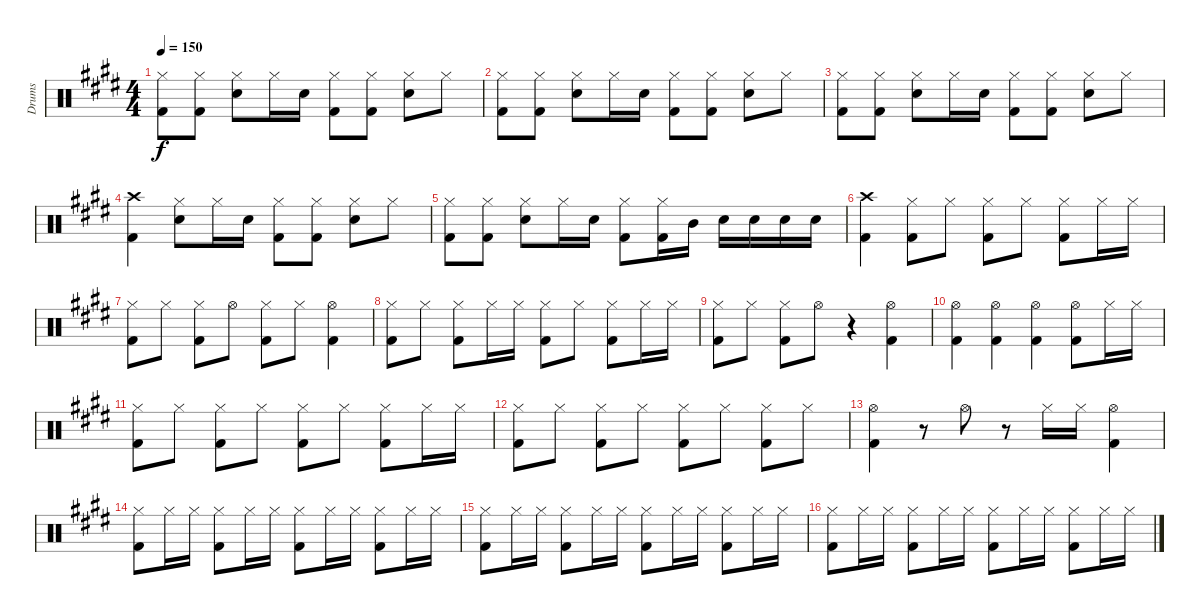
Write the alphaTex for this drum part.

\track ("Drums" "Drums") {instrument percussion}
\staff {score}
\articulation defaults
\ts (4 4)
\tempo 150
\clef neutral
\ks e
("Hi-Hat (closed)" "Kick (hit) 2").8{dy f} ("Hi-Hat (closed)" "Kick (hit) 2").8 ("Hi-Hat (closed)" "Snare (hit) 2").8 "Hi-Hat (closed)".16 "Snare (hit) 2".16 ("Hi-Hat (closed)" "Kick (hit) 2").8 ("Hi-Hat (closed)" "Kick (hit) 2").8 ("Hi-Hat (closed)" "Snare (hit) 2").8 "Hi-Hat (closed)".8 |
("Hi-Hat (closed)" "Kick (hit) 2").8 ("Hi-Hat (closed)" "Kick (hit) 2").8 ("Hi-Hat (closed)" "Snare (hit) 2").8 "Hi-Hat (closed)".16 "Snare (hit) 2".16 ("Hi-Hat (closed)" "Kick (hit) 2").8 ("Hi-Hat (closed)" "Kick (hit) 2").8 ("Hi-Hat (closed)" "Snare (hit) 2").8 "Hi-Hat (closed)".8 |
("Hi-Hat (closed)" "Kick (hit) 2").8 ("Hi-Hat (closed)" "Kick (hit) 2").8 ("Hi-Hat (closed)" "Snare (hit) 2").8 "Hi-Hat (closed)".16 "Snare (hit) 2".16 ("Hi-Hat (closed)" "Kick (hit) 2").8 ("Hi-Hat (closed)" "Kick (hit) 2").8 ("Hi-Hat (closed)" "Snare (hit) 2").8 "Hi-Hat (closed)".8 |
("Crash high (hit)" "Kick (hit) 2").4 ("Hi-Hat (closed)" "Snare (hit) 2").8 "Hi-Hat (closed)".16 "Snare (hit) 2".16 ("Hi-Hat (closed)" "Kick (hit) 2").8 ("Hi-Hat (closed)" "Kick (hit) 2").8 ("Hi-Hat (closed)" "Snare (hit) 2").8 "Hi-Hat (closed)".8 |
("Hi-Hat (closed)" "Kick (hit) 2").8 ("Hi-Hat (closed)" "Kick (hit) 2").8 ("Hi-Hat (closed)" "Snare (hit) 2").8 "Hi-Hat (closed)".16 "Snare (hit) 2".16 ("Hi-Hat (closed)" "Kick (hit) 2").8 ("Hi-Hat (closed)" "Kick (hit) 2").16 "Mid Tom (hit)".16 "Snare (hit) 2".16 "Snare (hit) 2".16 "Snare (hit) 2".16 "Snare (hit) 2".16 |
("Crash high (hit)" "Kick (hit) 2").4 ("Hi-Hat (closed)" "Kick (hit) 2").8 "Hi-Hat (closed)".8 ("Hi-Hat (closed)" "Kick (hit) 2").8 "Hi-Hat (closed)".8 ("Hi-Hat (closed)" "Kick (hit) 2").8 "Hi-Hat (closed)".16 "Hi-Hat (closed)".16 |
("Hi-Hat (closed)" "Kick (hit) 2").8 "Hi-Hat (closed)".8 ("Hi-Hat (closed)" "Kick (hit) 2").8 "Hi-Hat (open)".8 ("Hi-Hat (closed)" "Kick (hit) 2").8 "Hi-Hat (closed)".8 ("Hi-Hat (open)" "Kick (hit) 2").4 |
("Hi-Hat (closed)" "Kick (hit) 2").8 "Hi-Hat (closed)".8 ("Hi-Hat (closed)" "Kick (hit) 2").8 "Hi-Hat (closed)".16 "Hi-Hat (closed)".16 ("Hi-Hat (closed)" "Kick (hit) 2").8 "Hi-Hat (closed)".8 ("Hi-Hat (closed)" "Kick (hit) 2").8 "Hi-Hat (closed)".16 "Hi-Hat (closed)".16 |
("Hi-Hat (closed)" "Kick (hit) 2").8 "Hi-Hat (closed)".8 ("Hi-Hat (closed)" "Kick (hit) 2").8 "Hi-Hat (open)".8 r.4 ("Hi-Hat (open)" "Kick (hit) 2").4 |
("Hi-Hat (open)" "Kick (hit) 2").4 ("Hi-Hat (open)" "Kick (hit) 2").4 ("Hi-Hat (open)" "Kick (hit) 2").4 ("Hi-Hat (open)" "Kick (hit) 2").8 "Hi-Hat (closed)".16 "Hi-Hat (closed)".16 |
("Hi-Hat (closed)" "Kick (hit) 2").8 "Hi-Hat (closed)".8 ("Hi-Hat (closed)" "Kick (hit) 2").8 "Hi-Hat (closed)".8 ("Hi-Hat (closed)" "Kick (hit) 2").8 "Hi-Hat (closed)".8 ("Hi-Hat (closed)" "Kick (hit) 2").8 "Hi-Hat (closed)".16 "Hi-Hat (closed)".16 |
("Hi-Hat (closed)" "Kick (hit) 2").8 "Hi-Hat (closed)".8 ("Hi-Hat (closed)" "Kick (hit) 2").8 "Hi-Hat (closed)".8 ("Hi-Hat (closed)" "Kick (hit) 2").8 "Hi-Hat (closed)".8 ("Hi-Hat (closed)" "Kick (hit) 2").8 "Hi-Hat (closed)".8 |
("Hi-Hat (open)" "Kick (hit) 2").4 r.8 "Hi-Hat (open)".8 r.8 "Hi-Hat (closed)".16 "Hi-Hat (closed)".16 ("Hi-Hat (open)" "Kick (hit) 2").4 |
("Hi-Hat (closed)" "Kick (hit) 2").8 "Hi-Hat (closed)".16 "Hi-Hat (closed)".16 ("Hi-Hat (closed)" "Kick (hit) 2").8 "Hi-Hat (closed)".16 "Hi-Hat (closed)".16 ("Hi-Hat (closed)" "Kick (hit) 2").8 "Hi-Hat (closed)".16 "Hi-Hat (closed)".16 ("Hi-Hat (closed)" "Kick (hit) 2").8 "Hi-Hat (closed)".16 "Hi-Hat (closed)".16 |
("Hi-Hat (closed)" "Kick (hit) 2").8 "Hi-Hat (closed)".16 "Hi-Hat (closed)".16 ("Hi-Hat (closed)" "Kick (hit) 2").8 "Hi-Hat (closed)".16 "Hi-Hat (closed)".16 ("Hi-Hat (closed)" "Kick (hit) 2").8 "Hi-Hat (closed)".16 "Hi-Hat (closed)".16 ("Hi-Hat (closed)" "Kick (hit) 2").8 "Hi-Hat (closed)".16 "Hi-Hat (closed)".16 |
("Hi-Hat (closed)" "Kick (hit) 2").8 "Hi-Hat (closed)".16 "Hi-Hat (closed)".16 ("Hi-Hat (closed)" "Kick (hit) 2").8 "Hi-Hat (closed)".16 "Hi-Hat (closed)".16 ("Hi-Hat (closed)" "Kick (hit) 2").8 "Hi-Hat (closed)".16 "Hi-Hat (closed)".16 ("Hi-Hat (closed)" "Kick (hit) 2").8 "Hi-Hat (closed)".16 "Hi-Hat (closed)".16
